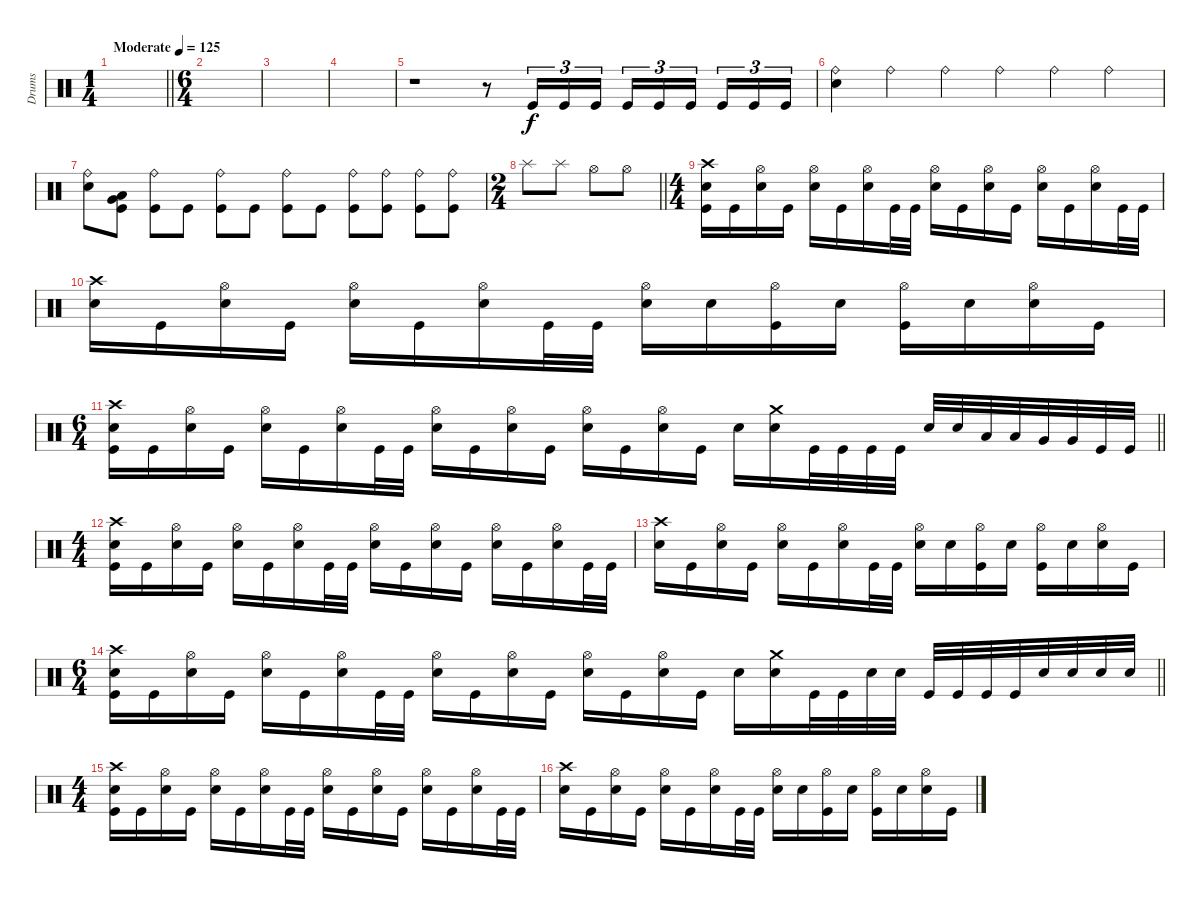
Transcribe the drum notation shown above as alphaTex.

\track ("Drums" "Drums") {instrument percussion}
\staff
\articulation defaults
\ts (1 4)
\tempo (125 "Moderate")
\clef neutral
\barLineRight lightlight
\ks c
|
\ts (6 4)
|
|
|
r.1 r.8 "Kick (hit)".16{tu (3 2)} "Kick (hit)".16{tu (3 2)} "Kick (hit)".16{tu (3 2) beam splitsecondary} "Kick (hit)".16{tu (3 2)} "Kick (hit)".16{tu (3 2)} "Kick (hit)".16{tu (3 2) beam splitsecondary} "Kick (hit)".16{tu (3 2)} "Kick (hit)".16{tu (3 2)} "Kick (hit)".16{tu (3 2)} |
("Ride (bell)" "Electric Snare (hit)").4 "Ride (bell)".4 "Ride (bell)".4 "Ride (bell)".4 "Ride (bell)".4 "Ride (bell)".4 |
("Ride (bell)" "Electric Snare (hit)").8 ("Very Low Tom (hit)" "Low Floor Tom (hit)" "Kick (hit)").8 ("Ride (bell)" "Kick (hit)").8 "Kick (hit)".8 ("Ride (bell)" "Kick (hit)").8 "Kick (hit)".8 ("Ride (bell)" "Kick (hit)").8 "Kick (hit)".8 ("Ride (bell)" "Kick (hit)").8 ("Ride (bell)" "Kick (hit)").8 ("Ride (bell)" "Kick (hit)").8 ("Ride (bell)" "Kick (hit)").8 |
\ts (2 4)
\barLineRight lightlight "Splash (hit)".8 "Splash (hit)".8 "Hi-Hat (open)".8 "Hi-Hat (open)".8
|
\ts (4 4)
\section ("" "")
("Crash high (hit)" "Electric Snare (hit)" "Kick (hit)").16 "Kick (hit)".16 ("Hi-Hat (open)" "Electric Snare (hit)").16 "Kick (hit)".16 ("Hi-Hat (open)" "Electric Snare (hit)").16 "Kick (hit)".16 ("Hi-Hat (open)" "Electric Snare (hit)").16 "Kick (hit)".32 "Kick (hit)".32 ("Hi-Hat (open)" "Electric Snare (hit)").16 "Kick (hit)".16 ("Hi-Hat (open)" "Electric Snare (hit)").16 "Kick (hit)".16 ("Hi-Hat (open)" "Electric Snare (hit)").16 "Kick (hit)".16 ("Hi-Hat (open)" "Electric Snare (hit)").16 "Kick (hit)".32 "Kick (hit)".32 |
("Crash high (hit)" "Electric Snare (hit)").16 "Kick (hit)".16 ("Hi-Hat (open)" "Electric Snare (hit)").16 "Kick (hit)".16 ("Hi-Hat (open)" "Electric Snare (hit)").16 "Kick (hit)".16 ("Hi-Hat (open)" "Electric Snare (hit)").16 "Kick (hit)".32 "Kick (hit)".32 ("Hi-Hat (open)" "Electric Snare (hit)").16 "Electric Snare (hit)".16 ("Hi-Hat (open)" "Kick (hit)").16 "Electric Snare (hit)".16 ("Hi-Hat (open)" "Kick (hit)").16 "Electric Snare (hit)".16 ("Hi-Hat (open)" "Electric Snare (hit)").16 "Kick (hit)".16 |
\ts (6 4)
\barLineRight lightlight
("Crash high (hit)" "Electric Snare (hit)" "Kick (hit)").16 "Kick (hit)".16 ("Hi-Hat (open)" "Electric Snare (hit)").16 "Kick (hit)".16 ("Hi-Hat (open)" "Electric Snare (hit)").16 "Kick (hit)".16 ("Hi-Hat (open)" "Electric Snare (hit)").16 "Kick (hit)".32 "Kick (hit)".32 ("Hi-Hat (open)" "Electric Snare (hit)").16 "Kick (hit)".16 ("Hi-Hat (open)" "Electric Snare (hit)").16 "Kick (hit)".16 ("Hi-Hat (open)" "Electric Snare (hit)").16 "Kick (hit)".16 ("Hi-Hat (open)" "Electric Snare (hit)").16 "Kick (hit)".16 "Electric Snare (hit)".16 ("Crash medium (hit)" "Electric Snare (hit)").16 "Kick (hit)".32 "Kick (hit)".32 "Kick (hit)".32 "Kick (hit)".32 "Electric Snare (hit)".32 "Electric Snare (hit)".32 "Low Tom (hit)".32 "Low Tom (hit)".32 "Very Low Tom (hit)".32 "Very Low Tom (hit)".32 "Kick (hit)".32 "Kick (hit)".32 |
\ts (4 4)
("Crash high (hit)" "Electric Snare (hit)" "Kick (hit)").16 "Kick (hit)".16 ("Hi-Hat (open)" "Electric Snare (hit)").16 "Kick (hit)".16 ("Hi-Hat (open)" "Electric Snare (hit)").16 "Kick (hit)".16 ("Hi-Hat (open)" "Electric Snare (hit)").16 "Kick (hit)".32 "Kick (hit)".32 ("Hi-Hat (open)" "Electric Snare (hit)").16 "Kick (hit)".16 ("Hi-Hat (open)" "Electric Snare (hit)").16 "Kick (hit)".16 ("Hi-Hat (open)" "Electric Snare (hit)").16 "Kick (hit)".16 ("Hi-Hat (open)" "Electric Snare (hit)").16 "Kick (hit)".32 "Kick (hit)".32 |
("Crash high (hit)" "Electric Snare (hit)").16 "Kick (hit)".16 ("Hi-Hat (open)" "Electric Snare (hit)").16 "Kick (hit)".16 ("Hi-Hat (open)" "Electric Snare (hit)").16 "Kick (hit)".16 ("Hi-Hat (open)" "Electric Snare (hit)").16 "Kick (hit)".32 "Kick (hit)".32 ("Hi-Hat (open)" "Electric Snare (hit)").16 "Electric Snare (hit)".16 ("Hi-Hat (open)" "Kick (hit)").16 "Electric Snare (hit)".16 ("Hi-Hat (open)" "Kick (hit)").16 "Electric Snare (hit)".16 ("Hi-Hat (open)" "Electric Snare (hit)").16 "Kick (hit)".16 |
\ts (6 4)
\barLineRight lightlight
("Crash high (hit)" "Electric Snare (hit)" "Kick (hit)").16 "Kick (hit)".16 ("Hi-Hat (open)" "Electric Snare (hit)").16 "Kick (hit)".16 ("Hi-Hat (open)" "Electric Snare (hit)").16 "Kick (hit)".16 ("Hi-Hat (open)" "Electric Snare (hit)").16 "Kick (hit)".32 "Kick (hit)".32 ("Hi-Hat (open)" "Electric Snare (hit)").16 "Kick (hit)".16 ("Hi-Hat (open)" "Electric Snare (hit)").16 "Kick (hit)".16 ("Hi-Hat (open)" "Electric Snare (hit)").16 "Kick (hit)".16 ("Hi-Hat (open)" "Electric Snare (hit)").16 "Kick (hit)".16 "Electric Snare (hit)".16 ("Crash medium (hit)" "Electric Snare (hit)").16 "Kick (hit)".32 "Kick (hit)".32 "Electric Snare (hit)".32 "Electric Snare (hit)".32 "Kick (hit)".32 "Kick (hit)".32 "Kick (hit)".32 "Kick (hit)".32 "Electric Snare (hit)".32 "Electric Snare (hit)".32 "Electric Snare (hit)".32 "Electric Snare (hit)".32 |
\ts (4 4)
("Crash high (hit)" "Electric Snare (hit)" "Kick (hit)").16 "Kick (hit)".16 ("Hi-Hat (open)" "Electric Snare (hit)").16 "Kick (hit)".16 ("Hi-Hat (open)" "Electric Snare (hit)").16 "Kick (hit)".16 ("Hi-Hat (open)" "Electric Snare (hit)").16 "Kick (hit)".32 "Kick (hit)".32 ("Hi-Hat (open)" "Electric Snare (hit)").16 "Kick (hit)".16 ("Hi-Hat (open)" "Electric Snare (hit)").16 "Kick (hit)".16 ("Hi-Hat (open)" "Electric Snare (hit)").16 "Kick (hit)".16 ("Hi-Hat (open)" "Electric Snare (hit)").16 "Kick (hit)".32 "Kick (hit)".32 |
("Crash high (hit)" "Electric Snare (hit)").16 "Kick (hit)".16 ("Hi-Hat (open)" "Electric Snare (hit)").16 "Kick (hit)".16 ("Hi-Hat (open)" "Electric Snare (hit)").16 "Kick (hit)".16 ("Hi-Hat (open)" "Electric Snare (hit)").16 "Kick (hit)".32 "Kick (hit)".32 ("Hi-Hat (open)" "Electric Snare (hit)").16 "Electric Snare (hit)".16 ("Hi-Hat (open)" "Kick (hit)").16 "Electric Snare (hit)".16 ("Hi-Hat (open)" "Kick (hit)").16 "Electric Snare (hit)".16 ("Hi-Hat (open)" "Electric Snare (hit)").16 "Kick (hit)".16
